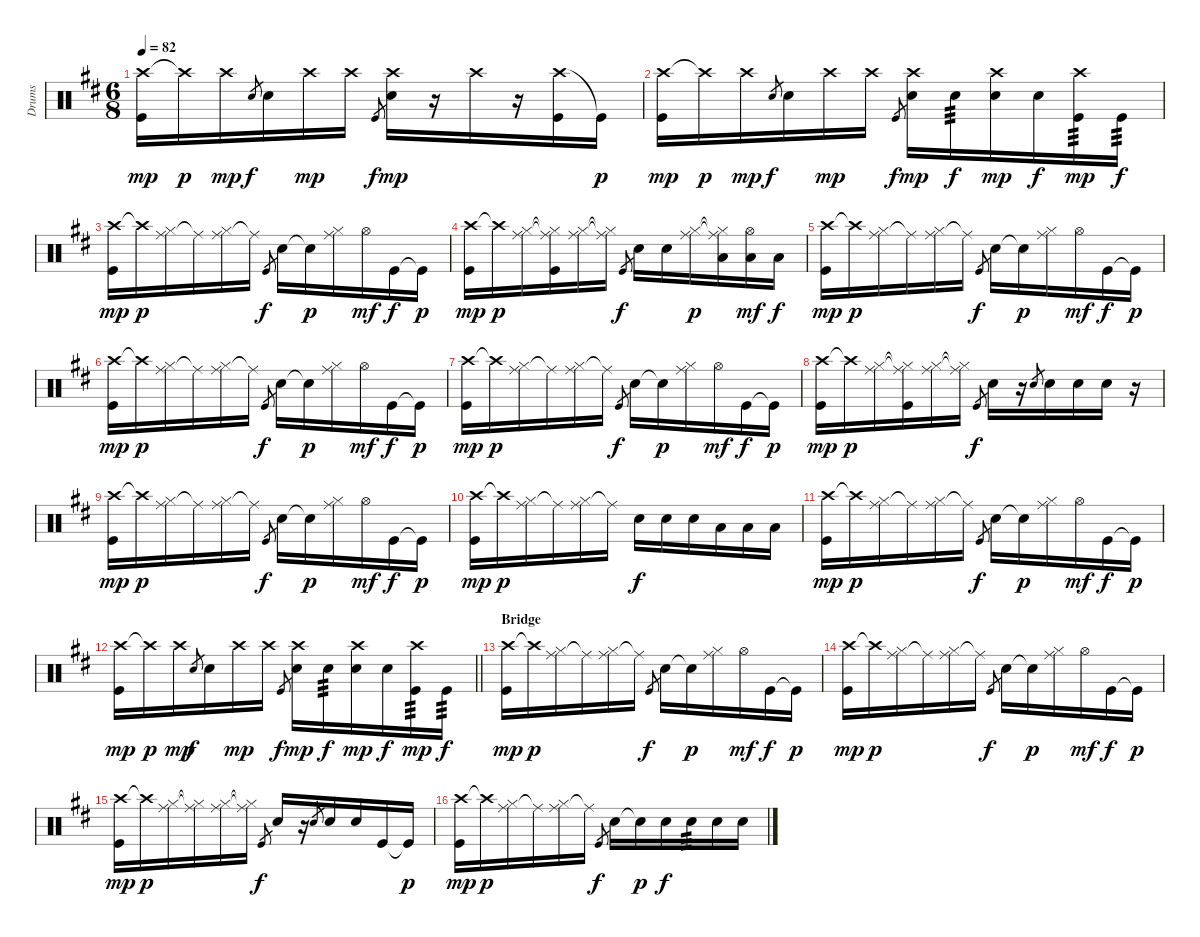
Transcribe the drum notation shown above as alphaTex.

\track ("Drums" "Drums") {instrument percussion}
\staff {score}
\articulation defaults
\ts (6 8)
\tempo 82
\clef neutral
\ks d
("Crash high (hit)" "Kick (hit)").16{dy mp} "Crash high (hit)"{t}.16{dy p} "Crash high (hit)".16{dy mp} "Electric Snare (hit)".8{gr dy f} "Electric Snare (hit)".16 "Crash high (hit)".16{dy mp} "Crash high (hit)".16 "Kick (hit)".8{gr dy f} ("Crash high (hit)" "Electric Snare (hit)").16{dy mp} r.16 "Crash high (hit)".16 r.16 ("Crash high (hit)" "Kick (hit)").16 "Kick (hit)"{t}.16{dy p} |
("Crash high (hit)" "Kick (hit)").16{dy mp} "Crash high (hit)"{t}.16{dy p} "Crash high (hit)".16{dy mp} "Electric Snare (hit)".8{gr dy f} "Electric Snare (hit)".16 "Crash high (hit)".16{dy mp} "Crash high (hit)".16 "Kick (hit)".8{gr dy f} ("Crash high (hit)" "Electric Snare (hit)").16{dy mp} "Electric Snare (hit)".16{tp 3 dy f} ("Crash high (hit)" "Electric Snare (hit)").16{dy mp} "Electric Snare (hit)".16{dy f} ("Crash high (hit)" "Kick (hit)").16{tp 3 dy mp} "Kick (hit)".16{tp 3 dy f} |
("Crash high (hit)" "Kick (hit)").16{dy mp} "Crash high (hit)"{t}.16{dy p} ("Ride (middle)" "Hi-Hat (closed)").16 "Ride (middle)"{t}.16 ("Ride (middle)" "Hi-Hat (closed)").16 "Ride (middle)"{t}.16 "Kick (hit)".8{gr dy f} "Electric Snare (hit)".16 "Electric Snare (hit)"{t}.16{dy p} ("Ride (middle)" "Hi-Hat (closed)").16 "Hi-Hat (open)".16{dy mf} "Kick (hit)".16{dy f} "Kick (hit)"{t}.16{dy p} |
("Crash high (hit)" "Kick (hit)").16{dy mp} "Crash high (hit)"{t}.16{dy p} ("Ride (middle)" "Hi-Hat (closed)").16 ("Ride (middle)"{t} "Hi-Hat (closed)"{t} "Kick (hit)").16 ("Ride (middle)" "Hi-Hat (closed)").16 ("Ride (middle)"{t} "Hi-Hat (closed)"{t}).16 "Kick (hit)".8{gr dy f} "Electric Snare (hit)".16 "Electric Snare (hit)".16 ("Ride (middle)" "Hi-Hat (closed)").16{dy p} ("Ride (middle)"{t} "Hi-Hat (closed)"{t} "Low Floor Tom (hit)").16 ("Hi-Hat (open)" "Low Floor Tom (hit)").16{dy mf} "Low Floor Tom (hit)".16{dy f} |
("Crash high (hit)" "Kick (hit)").16{dy mp} "Crash high (hit)"{t}.16{dy p} ("Ride (middle)" "Hi-Hat (closed)").16 "Ride (middle)"{t}.16 ("Ride (middle)" "Hi-Hat (closed)").16 "Ride (middle)"{t}.16 "Kick (hit)".8{gr dy f} "Electric Snare (hit)".16 "Electric Snare (hit)"{t}.16{dy p} ("Ride (middle)" "Hi-Hat (closed)").16 "Hi-Hat (open)".16{dy mf} "Kick (hit)".16{dy f} "Kick (hit)"{t}.16{dy p} |
("Crash high (hit)" "Kick (hit)").16{dy mp} "Crash high (hit)"{t}.16{dy p} ("Ride (middle)" "Hi-Hat (closed)").16 "Ride (middle)"{t}.16 ("Ride (middle)" "Hi-Hat (closed)").16 "Ride (middle)"{t}.16 "Kick (hit)".8{gr dy f} "Electric Snare (hit)".16 "Electric Snare (hit)"{t}.16{dy p} ("Ride (middle)" "Hi-Hat (closed)").16 "Hi-Hat (open)".16{dy mf} "Kick (hit)".16{dy f} "Kick (hit)"{t}.16{dy p} |
("Crash high (hit)" "Kick (hit)").16{dy mp} "Crash high (hit)"{t}.16{dy p} ("Ride (middle)" "Hi-Hat (closed)").16 "Ride (middle)"{t}.16 ("Ride (middle)" "Hi-Hat (closed)").16 "Ride (middle)"{t}.16 "Kick (hit)".8{gr dy f} "Electric Snare (hit)".16 "Electric Snare (hit)"{t}.16{dy p} ("Ride (middle)" "Hi-Hat (closed)").16 "Hi-Hat (open)".16{dy mf} "Kick (hit)".16{dy f} "Kick (hit)"{t}.16{dy p} |
("Crash high (hit)" "Kick (hit)").16{dy mp} "Crash high (hit)"{t}.16{dy p} ("Ride (middle)" "Hi-Hat (closed)").16 ("Ride (middle)"{t} "Hi-Hat (closed)"{t} "Kick (hit)").16 ("Ride (middle)" "Hi-Hat (closed)").16 ("Ride (middle)"{t} "Hi-Hat (closed)"{t}).16 "Kick (hit)".8{gr dy f} "Electric Snare (hit)".16 r.16 "Electric Snare (hit)".8{gr} "Electric Snare (hit)".16 "Electric Snare (hit)".16 "Electric Snare (hit)".16 r.16 |
("Crash high (hit)" "Kick (hit)").16{dy mp} "Crash high (hit)"{t}.16{dy p} ("Ride (middle)" "Hi-Hat (closed)").16 "Ride (middle)"{t}.16 ("Ride (middle)" "Hi-Hat (closed)").16 "Ride (middle)"{t}.16 "Kick (hit)".8{gr dy f} "Electric Snare (hit)".16 "Electric Snare (hit)"{t}.16{dy p} ("Ride (middle)" "Hi-Hat (closed)").16 "Hi-Hat (open)".16{dy mf} "Kick (hit)".16{dy f} "Kick (hit)"{t}.16{dy p} |
("Crash high (hit)" "Kick (hit)").16{dy mp} "Crash high (hit)"{t}.16{dy p} ("Ride (middle)" "Hi-Hat (closed)").16 "Ride (middle)"{t}.16 ("Ride (middle)" "Hi-Hat (closed)").16 "Ride (middle)"{t}.16 "Electric Snare (hit)".16{dy f} "Electric Snare (hit)".16 "Electric Snare (hit)".16 "Low Floor Tom (hit)".16 "Low Floor Tom (hit)".16 "Low Floor Tom (hit)".16 |
("Crash high (hit)" "Kick (hit)").16{dy mp} "Crash high (hit)"{t}.16{dy p} ("Ride (middle)" "Hi-Hat (closed)").16 "Ride (middle)"{t}.16 ("Ride (middle)" "Hi-Hat (closed)").16 "Ride (middle)"{t}.16 "Kick (hit)".8{gr dy f} "Electric Snare (hit)".16 "Electric Snare (hit)"{t}.16{dy p} ("Ride (middle)" "Hi-Hat (closed)").16 "Hi-Hat (open)".16{dy mf} "Kick (hit)".16{dy f} "Kick (hit)"{t}.16{dy p} |
\barLineRight lightlight
("Crash high (hit)" "Kick (hit)").16{dy mp} "Crash high (hit)"{t}.16{dy p} "Crash high (hit)".16{dy mp} "Electric Snare (hit)".8{gr dy f} "Electric Snare (hit)".16 "Crash high (hit)".16{dy mp} "Crash high (hit)".16 "Kick (hit)".8{gr dy f} ("Crash high (hit)" "Electric Snare (hit)").16{dy mp} "Electric Snare (hit)".16{tp 3 dy f} ("Crash high (hit)" "Electric Snare (hit)").16{dy mp} "Electric Snare (hit)".16{dy f} ("Crash high (hit)" "Kick (hit)").16{tp 3 dy mp} "Kick (hit)".16{tp 3 dy f} |
\section ("" "Bridge")
("Crash high (hit)" "Kick (hit)").16{dy mp} "Crash high (hit)"{t}.16{dy p} ("Ride (middle)" "Hi-Hat (closed)").16 "Ride (middle)"{t}.16 ("Ride (middle)" "Hi-Hat (closed)").16 "Ride (middle)"{t}.16 "Kick (hit)".8{gr dy f} "Electric Snare (hit)".16 "Electric Snare (hit)"{t}.16{dy p} ("Ride (middle)" "Hi-Hat (closed)").16 "Hi-Hat (open)".16{dy mf} "Kick (hit)".16{dy f} "Kick (hit)"{t}.16{dy p} |
("Crash high (hit)" "Kick (hit)").16{dy mp} "Crash high (hit)"{t}.16{dy p} ("Ride (middle)" "Hi-Hat (closed)").16 "Ride (middle)"{t}.16 ("Ride (middle)" "Hi-Hat (closed)").16 "Ride (middle)"{t}.16 "Kick (hit)".8{gr dy f} "Electric Snare (hit)".16 "Electric Snare (hit)"{t}.16{dy p} ("Ride (middle)" "Hi-Hat (closed)").16 "Hi-Hat (open)".16{dy mf} "Kick (hit)".16{dy f} "Kick (hit)"{t}.16{dy p} |
("Crash high (hit)" "Kick (hit)").16{dy mp} "Crash high (hit)"{t}.16{dy p} ("Ride (middle)" "Hi-Hat (closed)").16 ("Ride (middle)"{t} "Hi-Hat (closed)"{t}).16 ("Ride (middle)" "Hi-Hat (closed)").16 ("Ride (middle)"{t} "Hi-Hat (closed)"{t}).16 "Kick (hit)".8{gr dy f} "Electric Snare (hit)".16 r.16 "Electric Snare (hit)".8{gr} "Electric Snare (hit)".16 "Electric Snare (hit)".16 "Kick (hit)".16 "Kick (hit)"{t}.16{dy p} |
("Crash high (hit)" "Kick (hit)").16{dy mp} "Crash high (hit)"{t}.16{dy p} ("Ride (middle)" "Hi-Hat (closed)").16 "Ride (middle)"{t}.16 ("Ride (middle)" "Hi-Hat (closed)").16 "Ride (middle)"{t}.16 "Kick (hit)".8{gr dy f} "Electric Snare (hit)".16 "Electric Snare (hit)"{t}.16{dy p} "Electric Snare (hit)".16{dy f} "Electric Snare (hit)".16{tp 3} "Electric Snare (hit)".16 "Electric Snare (hit)".16
